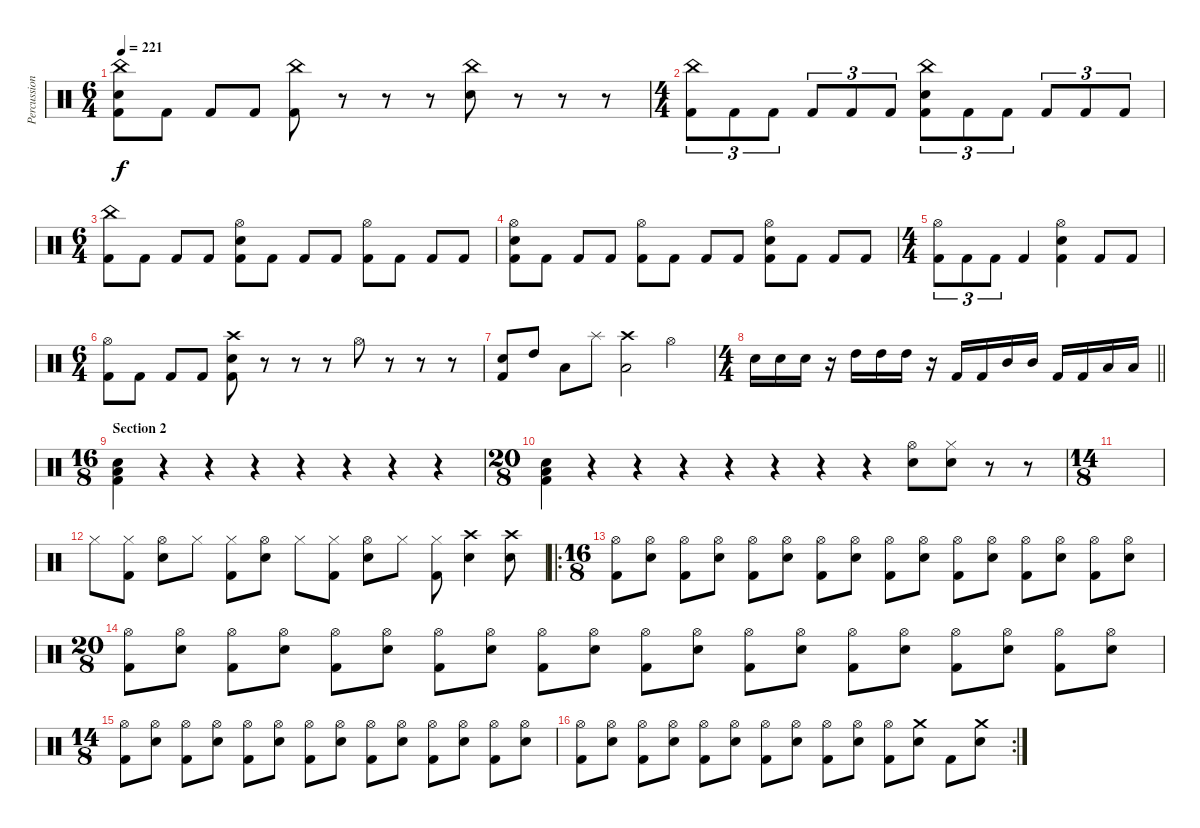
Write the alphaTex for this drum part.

\track ("Percussion" "Percussion") {instrument percussion}
\staff {score}
\articulation defaults
\ts (6 4)
\tempo 221
\clef neutral
\ks c
("China (hit)" "Snare (hit) 2" "Kick (hit) 2").8{dy f} "Kick (hit) 2".8 "Kick (hit) 2".8 "Kick (hit) 2".8 ("China (hit)" "Kick (hit) 2").8 r.8 r.8 r.8 ("China (hit)" "Snare (hit) 2").8 r.8 r.8 r.8 |
\ts (4 4)
("China (hit)" "Kick (hit) 2").8{tu (3 2)} "Kick (hit) 2".8{tu (3 2)} "Kick (hit) 2".8{tu (3 2)} "Kick (hit) 2".8{tu (3 2)} "Kick (hit) 2".8{tu (3 2)} "Kick (hit) 2".8{tu (3 2)} ("China (hit)" "Snare (hit) 2" "Kick (hit) 2").8{tu (3 2)} "Kick (hit) 2".8{tu (3 2)} "Kick (hit) 2".8{tu (3 2)} "Kick (hit) 2".8{tu (3 2)} "Kick (hit) 2".8{tu (3 2)} "Kick (hit) 2".8{tu (3 2)} |
\ts (6 4)
("China (hit)" "Kick (hit) 2").8 "Kick (hit) 2".8 "Kick (hit) 2".8 "Kick (hit) 2".8 ("Hi-Hat (open)" "Snare (hit) 2" "Kick (hit) 2").8 "Kick (hit) 2".8 "Kick (hit) 2".8 "Kick (hit) 2".8 ("Hi-Hat (open)" "Kick (hit) 2").8 "Kick (hit) 2".8 "Kick (hit) 2".8 "Kick (hit) 2".8 |
("Hi-Hat (open)" "Snare (hit) 2" "Kick (hit) 2").8 "Kick (hit) 2".8 "Kick (hit) 2".8 "Kick (hit) 2".8 ("Hi-Hat (open)" "Kick (hit) 2").8 "Kick (hit) 2".8 "Kick (hit) 2".8 "Kick (hit) 2".8 ("Hi-Hat (open)" "Snare (hit) 2" "Kick (hit) 2").8 "Kick (hit) 2".8 "Kick (hit) 2".8 "Kick (hit) 2".8 |
\ts (4 4)
("Hi-Hat (open)" "Kick (hit) 2").8{tu (3 2)} "Kick (hit) 2".8{tu (3 2)} "Kick (hit) 2".8{tu (3 2)} "Kick (hit) 2".4 ("Hi-Hat (open)" "Snare (hit) 2" "Kick (hit) 2").4 "Kick (hit) 2".8 "Kick (hit) 2".8 |
\ts (6 4)
("Hi-Hat (open)" "Kick (hit) 2").8 "Kick (hit) 2".8 "Kick (hit) 2".8 "Kick (hit) 2".8 ("Crash high (hit)" "Snare (hit) 2" "Kick (hit) 2").8 r.8 r.8 r.8 "Hi-Hat (open)".8 r.8 r.8 r.8 |
("Snare (hit) 2" "Kick (hit) 2").8 "High Tom (hit)".8 "Low Tom (hit)".8 "Splash (hit)".8 ("Crash high (hit)" "Low Floor Tom (hit)").2 "Hi-Hat (open)".2 |
\ts (4 4)
\barLineRight lightlight "Snare (hit) 2".16 "Snare (hit) 2".16 "Snare (hit) 2".16
r.16 "High Tom (hit)".16 "High Tom (hit)".16 "High Tom (hit)".16 r.16 "Kick (hit) 2".16 "Kick (hit) 2".16 "Mid Tom (hit)".16 "Mid Tom (hit)".16 "Kick (hit) 2".16 "Kick (hit) 2".16 "Low Tom (hit)".16 "Low Tom (hit)".16 |
\ts (16 8)
\section ("" "Section 2")
("Low Floor Tom (hit)" "Snare (hit) 2" "Kick (hit) 2").4 r.4 r.4 r.4 r.4 r.4 r.4 r.4 |
\ts (20 8)
("Low Floor Tom (hit)" "Snare (hit) 2" "Kick (hit) 2").4 r.4 r.4 r.4 r.4 r.4 r.4 r.4 ("Hi-Hat (open)" "Snare (hit) 2").8 ("Hi-Hat (closed)" "Snare (hit) 2").8 r.8 r.8 |
\ts (14 8)
|
"Hi-Hat (closed)".8 ("Hi-Hat (closed)" "Kick (hit) 2").8 ("Hi-Hat (open)" "Snare (hit) 2").8 "Hi-Hat (closed)".8 ("Hi-Hat (closed)" "Kick (hit) 2").8 ("Hi-Hat (open)" "Snare (hit) 2").8 "Hi-Hat (closed)".8 ("Hi-Hat (closed)" "Kick (hit) 2").8 ("Hi-Hat (open)" "Snare (hit) 2").8 "Hi-Hat (closed)".8 ("Hi-Hat (closed)" "Kick (hit) 2").8 ("Crash high (hit)" "Snare (hit) 2").4 ("Crash high (hit)" "Snare (hit) 2").8 |
\ro
\ts (16 8)
("Hi-Hat (open)" "Kick (hit) 2").8 ("Hi-Hat (open)" "Snare (hit) 2").8 ("Hi-Hat (open)" "Kick (hit) 2").8 ("Hi-Hat (open)" "Snare (hit) 2").8 ("Hi-Hat (open)" "Kick (hit) 2").8 ("Hi-Hat (open)" "Snare (hit) 2").8 ("Hi-Hat (open)" "Kick (hit) 2").8 ("Hi-Hat (open)" "Snare (hit) 2").8 ("Hi-Hat (open)" "Kick (hit) 2").8 ("Hi-Hat (open)" "Snare (hit) 2").8 ("Hi-Hat (open)" "Kick (hit) 2").8 ("Hi-Hat (open)" "Snare (hit) 2").8 ("Hi-Hat (open)" "Kick (hit) 2").8 ("Hi-Hat (open)" "Snare (hit) 2").8 ("Hi-Hat (open)" "Kick (hit) 2").8 ("Hi-Hat (open)" "Snare (hit) 2").8 |
\ts (20 8)
("Hi-Hat (open)" "Kick (hit) 2").8 ("Hi-Hat (open)" "Snare (hit) 2").8 ("Hi-Hat (open)" "Kick (hit) 2").8 ("Hi-Hat (open)" "Snare (hit) 2").8 ("Hi-Hat (open)" "Kick (hit) 2").8 ("Hi-Hat (open)" "Snare (hit) 2").8 ("Hi-Hat (open)" "Kick (hit) 2").8 ("Hi-Hat (open)" "Snare (hit) 2").8 ("Hi-Hat (open)" "Kick (hit) 2").8 ("Hi-Hat (open)" "Snare (hit) 2").8 ("Hi-Hat (open)" "Kick (hit) 2").8 ("Hi-Hat (open)" "Snare (hit) 2").8 ("Hi-Hat (open)" "Kick (hit) 2").8 ("Hi-Hat (open)" "Snare (hit) 2").8 ("Hi-Hat (open)" "Kick (hit) 2").8 ("Hi-Hat (open)" "Snare (hit) 2").8 ("Hi-Hat (open)" "Kick (hit) 2").8 ("Hi-Hat (open)" "Snare (hit) 2").8 ("Hi-Hat (open)" "Kick (hit) 2").8 ("Hi-Hat (open)" "Snare (hit) 2").8 |
\ts (14 8)
("Hi-Hat (open)" "Kick (hit) 2").8 ("Hi-Hat (open)" "Snare (hit) 2").8 ("Hi-Hat (open)" "Kick (hit) 2").8 ("Hi-Hat (open)" "Snare (hit) 2").8 ("Hi-Hat (open)" "Kick (hit) 2").8 ("Hi-Hat (open)" "Snare (hit) 2").8 ("Hi-Hat (open)" "Kick (hit) 2").8 ("Hi-Hat (open)" "Snare (hit) 2").8 ("Hi-Hat (open)" "Kick (hit) 2").8 ("Hi-Hat (open)" "Snare (hit) 2").8 ("Hi-Hat (open)" "Kick (hit) 2").8 ("Hi-Hat (open)" "Snare (hit) 2").8 ("Hi-Hat (open)" "Kick (hit) 2").8 ("Hi-Hat (open)" "Snare (hit) 2").8 |
\rc 2
("Hi-Hat (open)" "Kick (hit) 2").8 ("Hi-Hat (open)" "Snare (hit) 2").8 ("Hi-Hat (open)" "Kick (hit) 2").8 ("Hi-Hat (open)" "Snare (hit) 2").8 ("Hi-Hat (open)" "Kick (hit) 2").8 ("Hi-Hat (open)" "Snare (hit) 2").8 ("Hi-Hat (open)" "Kick (hit) 2").8 ("Hi-Hat (open)" "Snare (hit) 2").8 ("Hi-Hat (open)" "Kick (hit) 2").8 ("Hi-Hat (open)" "Snare (hit) 2").8 ("Hi-Hat (open)" "Kick (hit) 2").8 ("Crash medium (hit)" "Snare (hit) 2").8 "Kick (hit) 2".8 ("Crash medium (hit)" "Snare (hit) 2").8
